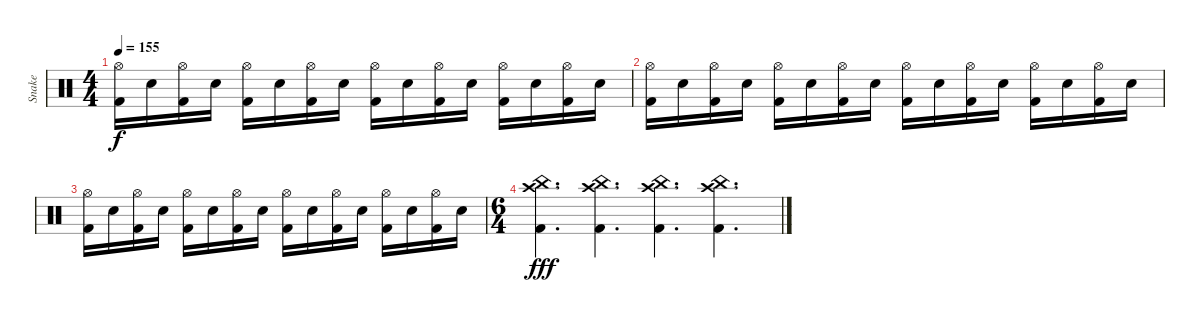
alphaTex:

\track ("Snake" "Snake") {instrument percussion}
\staff {score}
\articulation defaults
\ts (4 4)
\tempo 155
\clef neutral
\ks c
("Hi-Hat (open)" "Kick (hit) 2").16{dy f} "Snare (hit) 2".16 ("Hi-Hat (open)" "Kick (hit) 2").16 "Snare (hit) 2".16 ("Hi-Hat (open)" "Kick (hit) 2").16 "Snare (hit) 2".16 ("Hi-Hat (open)" "Kick (hit) 2").16 "Snare (hit) 2".16 ("Hi-Hat (open)" "Kick (hit) 2").16 "Snare (hit) 2".16 ("Hi-Hat (open)" "Kick (hit) 2").16 "Snare (hit) 2".16 ("Hi-Hat (open)" "Kick (hit) 2").16 "Snare (hit) 2".16 ("Hi-Hat (open)" "Kick (hit) 2").16 "Snare (hit) 2".16 |
("Hi-Hat (open)" "Kick (hit) 2").16 "Snare (hit) 2".16 ("Hi-Hat (open)" "Kick (hit) 2").16 "Snare (hit) 2".16 ("Hi-Hat (open)" "Kick (hit) 2").16 "Snare (hit) 2".16 ("Hi-Hat (open)" "Kick (hit) 2").16 "Snare (hit) 2".16 ("Hi-Hat (open)" "Kick (hit) 2").16 "Snare (hit) 2".16 ("Hi-Hat (open)" "Kick (hit) 2").16 "Snare (hit) 2".16 ("Hi-Hat (open)" "Kick (hit) 2").16 "Snare (hit) 2".16 ("Hi-Hat (open)" "Kick (hit) 2").16 "Snare (hit) 2".16 |
("Hi-Hat (open)" "Kick (hit) 2").16 "Snare (hit) 2".16 ("Hi-Hat (open)" "Kick (hit) 2").16 "Snare (hit) 2".16 ("Hi-Hat (open)" "Kick (hit) 2").16 "Snare (hit) 2".16 ("Hi-Hat (open)" "Kick (hit) 2").16 "Snare (hit) 2".16 ("Hi-Hat (open)" "Kick (hit) 2").16 "Snare (hit) 2".16 ("Hi-Hat (open)" "Kick (hit) 2").16 "Snare (hit) 2".16 ("Hi-Hat (open)" "Kick (hit) 2").16 "Snare (hit) 2".16 ("Hi-Hat (open)" "Kick (hit) 2").16 "Snare (hit) 2".16 |
\ts (6 4)
("Crash high (hit)" "China (hit)" "Kick (hit) 2").4{d dy fff} ("Crash high (hit)" "China (hit)" "Kick (hit) 2").4{d} ("Crash high (hit)" "China (hit)" "Kick (hit) 2").4{d} ("Crash high (hit)" "China (hit)" "Kick (hit) 2").4{d}
